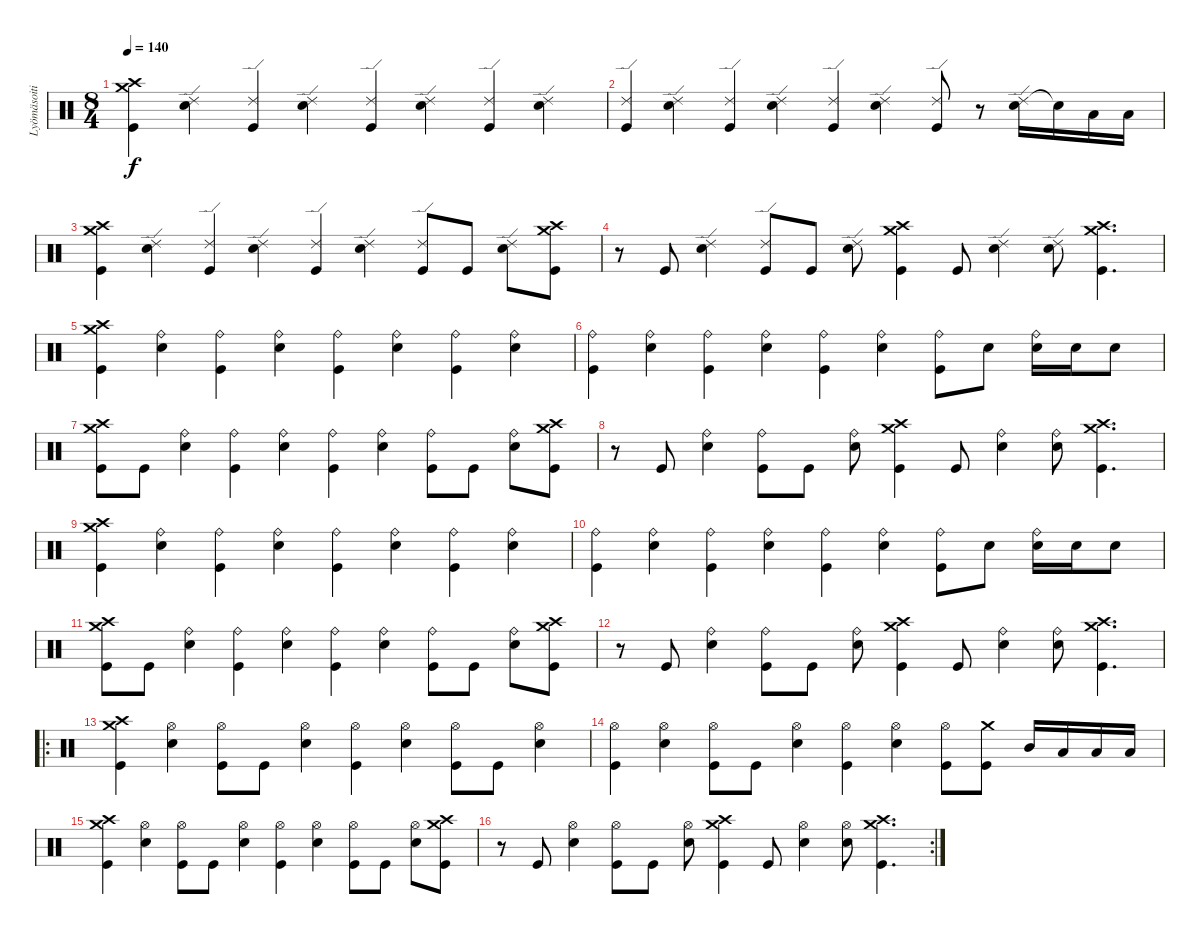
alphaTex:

\track ("Lyömäsoitin" "Lyömäsoiti") {instrument percussion}
\staff {score}
\articulation defaults
\ts (8 4)
\tempo 140
\clef neutral
\ks c
("Crash medium (hit)" "Crash high (hit)" "Kick (hit)").4{dy f} ("Ride (edge) 2" "Snare (hit) 2").4 ("Ride (edge) 2" "Kick (hit)").4 ("Ride (edge) 2" "Snare (hit) 2").4 ("Ride (edge) 2" "Kick (hit)").4 ("Ride (edge) 2" "Snare (hit) 2").4 ("Ride (edge) 2" "Kick (hit)").4 ("Ride (edge) 2" "Snare (hit) 2").4 |
("Ride (edge) 2" "Kick (hit)").4 ("Ride (edge) 2" "Snare (hit) 2").4 ("Ride (edge) 2" "Kick (hit)").4 ("Ride (edge) 2" "Snare (hit) 2").4 ("Ride (edge) 2" "Kick (hit)").4 ("Ride (edge) 2" "Snare (hit) 2").4 ("Ride (edge) 2" "Kick (hit)").8 r.8 ("Ride (edge) 2" "Snare (hit) 2").16 "Snare (hit)"{t}.16 "Low Tom (hit)".16 "Low Tom (hit)".16 |
("Crash medium (hit)" "Crash high (hit)" "Kick (hit)").4 ("Ride (edge) 2" "Snare (hit) 2").4 ("Ride (edge) 2" "Kick (hit)").4 ("Ride (edge) 2" "Snare (hit) 2").4 ("Ride (edge) 2" "Kick (hit)").4 ("Ride (edge) 2" "Snare (hit) 2").4 ("Ride (edge) 2" "Kick (hit)").8 "Kick (hit)".8 ("Ride (edge) 2" "Snare (hit) 2").8 ("Crash medium (hit)" "Crash high (hit)" "Kick (hit)").8 |
r.8 "Kick (hit)".8 ("Ride (edge) 2" "Snare (hit) 2").4 ("Ride (edge) 2" "Kick (hit)").8 "Kick (hit)".8 ("Ride (edge) 2" "Snare (hit) 2").8 ("Crash medium (hit)" "Crash high (hit)" "Kick (hit)").4 "Kick (hit)".8 ("Ride (edge) 2" "Snare (hit) 2").4 ("Ride (edge) 2" "Snare (hit) 2").8 ("Crash medium (hit)" "Crash high (hit)" "Kick (hit)").4{d} |
("Crash medium (hit)" "Crash high (hit)" "Kick (hit)").4 ("Ride (bell)" "Snare (hit) 2").4 ("Ride (bell)" "Kick (hit)").4 ("Ride (bell)" "Snare (hit) 2").4 ("Ride (bell)" "Kick (hit)").4 ("Ride (bell)" "Snare (hit) 2").4 ("Ride (bell)" "Kick (hit)").4 ("Ride (bell)" "Snare (hit) 2").4 |
("Ride (bell)" "Kick (hit)").4 ("Ride (bell)" "Snare (hit) 2").4 ("Ride (bell)" "Kick (hit)").4 ("Ride (bell)" "Snare (hit) 2").4 ("Ride (bell)" "Kick (hit)").4 ("Ride (bell)" "Snare (hit) 2").4 ("Ride (bell)" "Kick (hit)").8 "Snare (hit) 2".8 ("Ride (bell)" "Snare (hit) 2").16 "Snare (hit) 2".16 "Snare (hit) 2".8 |
("Crash medium (hit)" "Crash high (hit)" "Kick (hit)").8 "Kick (hit)".8 ("Ride (bell)" "Snare (hit) 2").4 ("Ride (bell)" "Kick (hit)").4 ("Ride (bell)" "Snare (hit) 2").4 ("Ride (bell)" "Kick (hit)").4 ("Ride (bell)" "Snare (hit) 2").4 ("Ride (bell)" "Kick (hit)").8 "Kick (hit)".8 ("Ride (bell)" "Snare (hit) 2").8 ("Crash medium (hit)" "Crash high (hit)" "Kick (hit)").8 |
r.8 "Kick (hit)".8 ("Ride (bell)" "Snare (hit) 2").4 ("Ride (bell)" "Kick (hit)").8 "Kick (hit)".8 ("Ride (bell)" "Snare (hit) 2").8 ("Crash medium (hit)" "Crash high (hit)" "Kick (hit)").4 "Kick (hit)".8 ("Ride (bell)" "Snare (hit) 2").4 ("Ride (bell)" "Snare (hit) 2").8 ("Crash medium (hit)" "Crash high (hit)" "Kick (hit)").4{d} |
("Crash medium (hit)" "Crash high (hit)" "Kick (hit)").4 ("Ride (bell)" "Snare (hit) 2").4 ("Ride (bell)" "Kick (hit)").4 ("Ride (bell)" "Snare (hit) 2").4 ("Ride (bell)" "Kick (hit)").4 ("Ride (bell)" "Snare (hit) 2").4 ("Ride (bell)" "Kick (hit)").4 ("Ride (bell)" "Snare (hit) 2").4 |
("Ride (bell)" "Kick (hit)").4 ("Ride (bell)" "Snare (hit) 2").4 ("Ride (bell)" "Kick (hit)").4 ("Ride (bell)" "Snare (hit) 2").4 ("Ride (bell)" "Kick (hit)").4 ("Ride (bell)" "Snare (hit) 2").4 ("Ride (bell)" "Kick (hit)").8 "Snare (hit) 2".8 ("Ride (bell)" "Snare (hit) 2").16 "Snare (hit) 2".16 "Snare (hit) 2".8 |
("Crash medium (hit)" "Crash high (hit)" "Kick (hit)").8 "Kick (hit)".8 ("Ride (bell)" "Snare (hit) 2").4 ("Ride (bell)" "Kick (hit)").4 ("Ride (bell)" "Snare (hit) 2").4 ("Ride (bell)" "Kick (hit)").4 ("Ride (bell)" "Snare (hit) 2").4 ("Ride (bell)" "Kick (hit)").8 "Kick (hit)".8 ("Ride (bell)" "Snare (hit) 2").8 ("Crash medium (hit)" "Crash high (hit)" "Kick (hit)").8 |
r.8 "Kick (hit)".8 ("Ride (bell)" "Snare (hit) 2").4 ("Ride (bell)" "Kick (hit)").8 "Kick (hit)".8 ("Ride (bell)" "Snare (hit) 2").8 ("Crash medium (hit)" "Crash high (hit)" "Kick (hit)").4 "Kick (hit)".8 ("Ride (bell)" "Snare (hit) 2").4 ("Ride (bell)" "Snare (hit) 2").8 ("Crash medium (hit)" "Crash high (hit)" "Kick (hit)").4{d} |
\ro
("Crash medium (hit)" "Crash high (hit)" "Kick (hit)").4 ("Hi-Hat (open)" "Snare (hit) 2").4 ("Hi-Hat (open)" "Kick (hit)").8 "Kick (hit)".8 ("Hi-Hat (open)" "Snare (hit) 2").4 ("Hi-Hat (open)" "Kick (hit)").4 ("Hi-Hat (open)" "Snare (hit) 2").4 ("Hi-Hat (open)" "Kick (hit)").8 "Kick (hit)".8 ("Hi-Hat (open)" "Snare (hit) 2").4 |
("Hi-Hat (open)" "Kick (hit)").4 ("Hi-Hat (open)" "Snare (hit) 2").4 ("Hi-Hat (open)" "Kick (hit)").8 "Kick (hit)".8 ("Hi-Hat (open)" "Snare (hit) 2").4 ("Hi-Hat (open)" "Kick (hit)").4 ("Hi-Hat (open)" "Snare (hit) 2").4 ("Hi-Hat (open)" "Kick (hit)").8 ("Crash medium (hit)" "Kick (hit)").8 "Mid Tom (hit)".16 "Low Tom (hit)".16 "Low Tom (hit)".16 "Low Tom (hit)".16 |
("Crash medium (hit)" "Crash high (hit)" "Kick (hit)").4 ("Hi-Hat (open)" "Snare (hit) 2").4 ("Hi-Hat (open)" "Kick (hit)").8 "Kick (hit)".8 ("Hi-Hat (open)" "Snare (hit) 2").4 ("Hi-Hat (open)" "Kick (hit)").4 ("Hi-Hat (open)" "Snare (hit) 2").4 ("Hi-Hat (open)" "Kick (hit)").8 "Kick (hit)".8 ("Hi-Hat (open)" "Snare (hit) 2").8 ("Crash medium (hit)" "Crash high (hit)" "Kick (hit)").8 |
\rc 2
r.8 "Kick (hit)".8 ("Hi-Hat (open)" "Snare (hit) 2").4 ("Hi-Hat (open)" "Kick (hit)").8 "Kick (hit)".8 ("Hi-Hat (open)" "Snare (hit) 2").8 ("Crash medium (hit)" "Crash high (hit)" "Kick (hit)").4 "Kick (hit)".8 ("Hi-Hat (open)" "Snare (hit) 2").4 ("Hi-Hat (open)" "Snare (hit) 2").8 ("Crash medium (hit)" "Crash high (hit)" "Kick (hit)").4{d}
